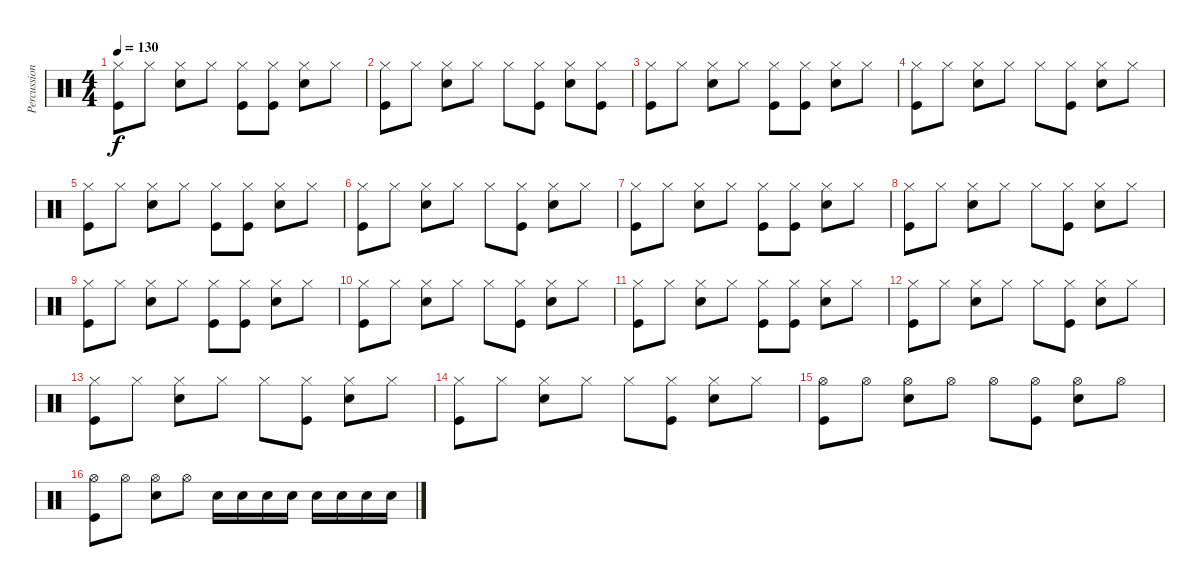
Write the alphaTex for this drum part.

\track ("Percussion" "Percussion") {instrument percussion}
\staff {score}
\articulation defaults
\ts (4 4)
\tempo 130
\clef neutral
\ks c
("Hi-Hat (closed)" "Kick (hit)").8{dy f} "Hi-Hat (closed)".8 ("Hi-Hat (closed)" "Electric Snare (hit)").8 "Hi-Hat (closed)".8 ("Hi-Hat (closed)" "Kick (hit)").8 ("Hi-Hat (closed)" "Kick (hit)").8 ("Hi-Hat (closed)" "Electric Snare (hit)").8 "Hi-Hat (closed)".8 |
("Hi-Hat (closed)" "Kick (hit)").8 "Hi-Hat (closed)".8 ("Hi-Hat (closed)" "Electric Snare (hit)").8 "Hi-Hat (closed)".8 "Hi-Hat (closed)".8 ("Hi-Hat (closed)" "Kick (hit)").8 ("Hi-Hat (closed)" "Electric Snare (hit)").8 ("Hi-Hat (closed)" "Kick (hit)").8 |
("Hi-Hat (closed)" "Kick (hit)").8 "Hi-Hat (closed)".8 ("Hi-Hat (closed)" "Electric Snare (hit)").8 "Hi-Hat (closed)".8 ("Hi-Hat (closed)" "Kick (hit)").8 ("Hi-Hat (closed)" "Kick (hit)").8 ("Hi-Hat (closed)" "Electric Snare (hit)").8 "Hi-Hat (closed)".8 |
("Hi-Hat (closed)" "Kick (hit)").8 "Hi-Hat (closed)".8 ("Hi-Hat (closed)" "Electric Snare (hit)").8 "Hi-Hat (closed)".8 "Hi-Hat (closed)".8 ("Hi-Hat (closed)" "Kick (hit)").8 ("Hi-Hat (closed)" "Electric Snare (hit)").8 "Hi-Hat (closed)".8 |
("Hi-Hat (closed)" "Kick (hit)").8 "Hi-Hat (closed)".8 ("Hi-Hat (closed)" "Electric Snare (hit)").8 "Hi-Hat (closed)".8 ("Hi-Hat (closed)" "Kick (hit)").8 ("Hi-Hat (closed)" "Kick (hit)").8 ("Hi-Hat (closed)" "Electric Snare (hit)").8 "Hi-Hat (closed)".8 |
("Hi-Hat (closed)" "Kick (hit)").8 "Hi-Hat (closed)".8 ("Hi-Hat (closed)" "Electric Snare (hit)").8 "Hi-Hat (closed)".8 "Hi-Hat (closed)".8 ("Hi-Hat (closed)" "Kick (hit)").8 ("Hi-Hat (closed)" "Electric Snare (hit)").8 "Hi-Hat (closed)".8 |
("Hi-Hat (closed)" "Kick (hit)").8 "Hi-Hat (closed)".8 ("Hi-Hat (closed)" "Electric Snare (hit)").8 "Hi-Hat (closed)".8 ("Hi-Hat (closed)" "Kick (hit)").8 ("Hi-Hat (closed)" "Kick (hit)").8 ("Hi-Hat (closed)" "Electric Snare (hit)").8 "Hi-Hat (closed)".8 |
("Hi-Hat (closed)" "Kick (hit)").8 "Hi-Hat (closed)".8 ("Hi-Hat (closed)" "Electric Snare (hit)").8 "Hi-Hat (closed)".8 "Hi-Hat (closed)".8 ("Hi-Hat (closed)" "Kick (hit)").8 ("Hi-Hat (closed)" "Electric Snare (hit)").8 "Hi-Hat (closed)".8 |
("Hi-Hat (closed)" "Kick (hit)").8 "Hi-Hat (closed)".8 ("Hi-Hat (closed)" "Electric Snare (hit)").8 "Hi-Hat (closed)".8 ("Hi-Hat (closed)" "Kick (hit)").8 ("Hi-Hat (closed)" "Kick (hit)").8 ("Hi-Hat (closed)" "Electric Snare (hit)").8 "Hi-Hat (closed)".8 |
("Hi-Hat (closed)" "Kick (hit)").8 "Hi-Hat (closed)".8 ("Hi-Hat (closed)" "Electric Snare (hit)").8 "Hi-Hat (closed)".8 "Hi-Hat (closed)".8 ("Hi-Hat (closed)" "Kick (hit)").8 ("Hi-Hat (closed)" "Electric Snare (hit)").8 "Hi-Hat (closed)".8 |
("Hi-Hat (closed)" "Kick (hit)").8 "Hi-Hat (closed)".8 ("Hi-Hat (closed)" "Electric Snare (hit)").8 "Hi-Hat (closed)".8 ("Hi-Hat (closed)" "Kick (hit)").8 ("Hi-Hat (closed)" "Kick (hit)").8 ("Hi-Hat (closed)" "Electric Snare (hit)").8 "Hi-Hat (closed)".8 |
("Hi-Hat (closed)" "Kick (hit)").8 "Hi-Hat (closed)".8 ("Hi-Hat (closed)" "Electric Snare (hit)").8 "Hi-Hat (closed)".8 "Hi-Hat (closed)".8 ("Hi-Hat (closed)" "Kick (hit)").8 ("Hi-Hat (closed)" "Electric Snare (hit)").8 "Hi-Hat (closed)".8 |
("Hi-Hat (closed)" "Kick (hit)").8 "Hi-Hat (closed)".8 ("Hi-Hat (closed)" "Electric Snare (hit)").8 "Hi-Hat (closed)".8 "Hi-Hat (closed)".8 ("Hi-Hat (closed)" "Kick (hit)").8 ("Hi-Hat (closed)" "Electric Snare (hit)").8 "Hi-Hat (closed)".8 |
("Hi-Hat (closed)" "Kick (hit)").8 "Hi-Hat (closed)".8 ("Hi-Hat (closed)" "Electric Snare (hit)").8 "Hi-Hat (closed)".8 "Hi-Hat (closed)".8 ("Hi-Hat (closed)" "Kick (hit)").8 ("Hi-Hat (closed)" "Electric Snare (hit)").8 "Hi-Hat (closed)".8 |
("Hi-Hat (open)" "Kick (hit)").8 "Hi-Hat (open)".8 ("Hi-Hat (open)" "Electric Snare (hit)").8 "Hi-Hat (open)".8 "Hi-Hat (open)".8 ("Hi-Hat (open)" "Kick (hit)").8 ("Hi-Hat (open)" "Electric Snare (hit)").8 "Hi-Hat (open)".8 |
("Hi-Hat (open)" "Kick (hit)").8 "Hi-Hat (open)".8 ("Hi-Hat (open)" "Electric Snare (hit)").8 "Hi-Hat (open)".8 "Electric Snare (hit)".16 "Electric Snare (hit)".16 "Electric Snare (hit)".16 "Electric Snare (hit)".16 "Electric Snare (hit)".16 "Electric Snare (hit)".16 "Electric Snare (hit)".16 "Electric Snare (hit)".16
